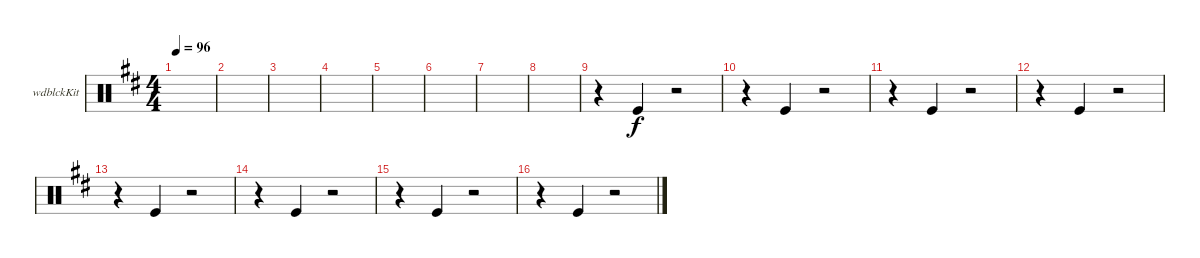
\defaultSystemsLayout 4
\bracketExtendMode groupsimilarinstruments
\firstSystemTrackNameOrientation horizontal
\otherSystemsTrackNameOrientation horizontal
\track ("Woodblock" "wdblckKit") {instrument percussion}
\staff {score}
\articulation defaults
\ts (4 4)
\tempo 96
\clef neutral
\scale
0.517241
\ks d
|
\scale
0.241379 |
\scale
0.241379 |
|
|
|
|
|
r.4 "Kick (hit)".4 r.2 |
r.4 "Kick (hit)".4 r.2 |
r.4 "Kick (hit)".4 r.2 |
r.4 "Kick (hit)".4 r.2 |
r.4 "Kick (hit)".4 r.2 |
r.4 "Kick (hit)".4 r.2 |
r.4 "Kick (hit)".4 r.2 |
r.4 "Kick (hit)".4 r.2
